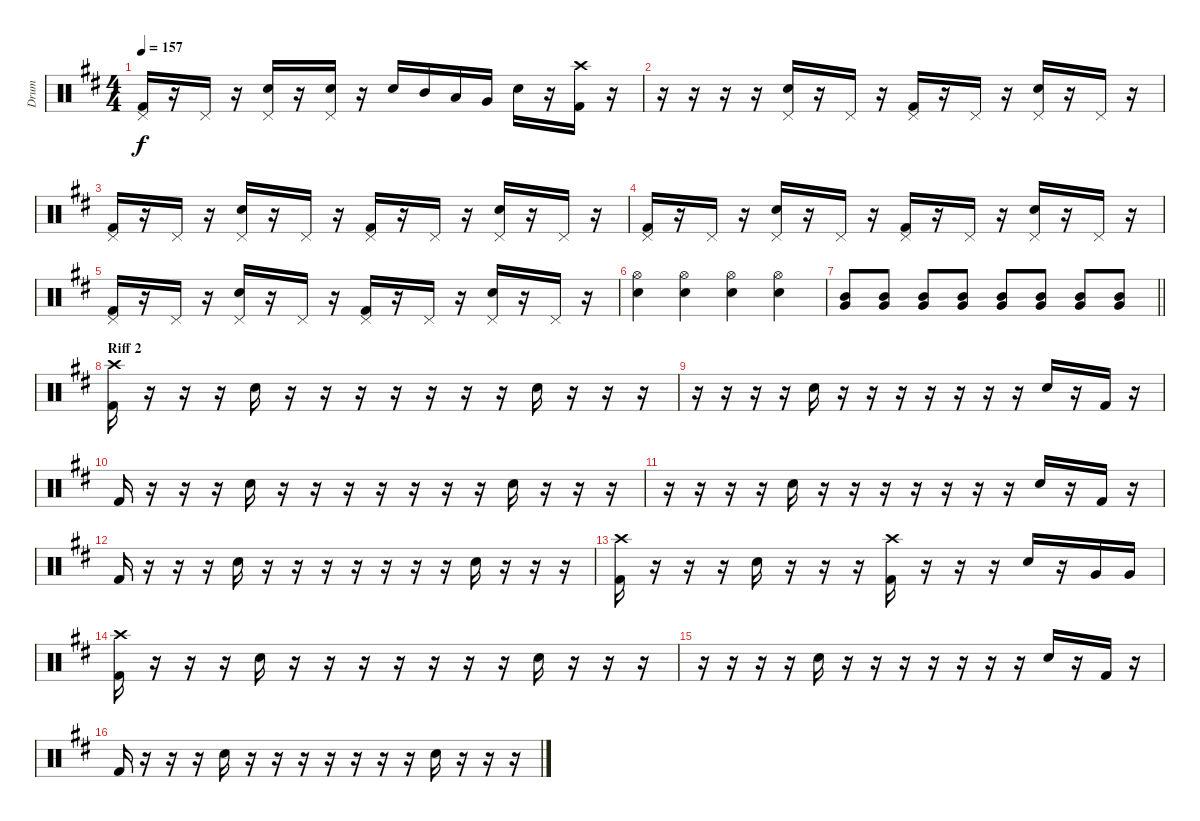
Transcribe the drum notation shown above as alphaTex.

\track ("Drum" "Drum") {instrument percussion}
\staff {score}
\articulation defaults
\ts (4 4)
\tempo 157
\clef neutral
\ks d
("Kick (hit) 2" "Pedal Hi-Hat (hit)").16{dy f} r.16 "Pedal Hi-Hat (hit)".16 r.16 ("Pedal Hi-Hat (hit)" "Electric Snare (hit)").16 r.16 ("Electric Snare (hit)" "Pedal Hi-Hat (hit)").16 r.16 "Electric Snare (hit)".16 "Mid Tom (hit)".16 "Low Tom (hit)".16 "Very Low Tom (hit)".16 "Electric Snare (hit)".16 r.16 ("Kick (hit) 2" "Crash high (hit)").16 r.16 |
r.16 r.16 r.16 r.16 ("Pedal Hi-Hat (hit)" "Electric Snare (hit)").16 r.16 "Pedal Hi-Hat (hit)".16 r.16 ("Pedal Hi-Hat (hit)" "Kick (hit) 2").16 r.16 "Pedal Hi-Hat (hit)".16 r.16 ("Pedal Hi-Hat (hit)" "Electric Snare (hit)").16 r.16 "Pedal Hi-Hat (hit)".16 r.16 |
("Kick (hit) 2" "Pedal Hi-Hat (hit)").16 r.16 "Pedal Hi-Hat (hit)".16 r.16 ("Pedal Hi-Hat (hit)" "Electric Snare (hit)").16 r.16 "Pedal Hi-Hat (hit)".16 r.16 ("Pedal Hi-Hat (hit)" "Kick (hit) 2").16 r.16 "Pedal Hi-Hat (hit)".16 r.16 ("Pedal Hi-Hat (hit)" "Electric Snare (hit)").16 r.16 "Pedal Hi-Hat (hit)".16 r.16 |
("Kick (hit) 2" "Pedal Hi-Hat (hit)").16 r.16 "Pedal Hi-Hat (hit)".16 r.16 ("Pedal Hi-Hat (hit)" "Electric Snare (hit)").16 r.16 "Pedal Hi-Hat (hit)".16 r.16 ("Pedal Hi-Hat (hit)" "Kick (hit) 2").16 r.16 "Pedal Hi-Hat (hit)".16 r.16 ("Pedal Hi-Hat (hit)" "Electric Snare (hit)").16 r.16 "Pedal Hi-Hat (hit)".16 r.16 |
("Kick (hit) 2" "Pedal Hi-Hat (hit)").16 r.16 "Pedal Hi-Hat (hit)".16 r.16 ("Pedal Hi-Hat (hit)" "Electric Snare (hit)").16 r.16 "Pedal Hi-Hat (hit)".16 r.16 ("Pedal Hi-Hat (hit)" "Kick (hit) 2").16 r.16 "Pedal Hi-Hat (hit)".16 r.16 ("Pedal Hi-Hat (hit)" "Electric Snare (hit)").16 r.16 "Pedal Hi-Hat (hit)".16 r.16 |
("Electric Snare (hit)" "Hi-Hat (open)").4 ("Electric Snare (hit)" "Hi-Hat (open)").4 ("Electric Snare (hit)" "Hi-Hat (open)").4 ("Electric Snare (hit)" "Hi-Hat (open)").4 |
\barLineRight lightlight
("Very Low Tom (hit)" "Mid Tom (hit)").8 ("Very Low Tom (hit)" "Mid Tom (hit)").8 ("Very Low Tom (hit)" "Mid Tom (hit)").8 ("Very Low Tom (hit)" "Mid Tom (hit)").8 ("Very Low Tom (hit)" "Mid Tom (hit)").8 ("Very Low Tom (hit)" "Mid Tom (hit)").8 ("Very Low Tom (hit)" "Mid Tom (hit)").8 ("Very Low Tom (hit)" "Mid Tom (hit)").8 |
\section ("" "Riff 2")
("Kick (hit) 2" "Crash high (hit)").16 r.16 r.16 r.16 "Electric Snare (hit)".16 r.16 r.16 r.16 r.16 r.16 r.16 r.16 "Electric Snare (hit)".16 r.16 r.16 r.16 |
r.16 r.16 r.16 r.16 "Electric Snare (hit)".16 r.16 r.16 r.16 r.16 r.16 r.16 r.16 "Electric Snare (hit)".16 r.16 "Kick (hit) 2".16 r.16 |
"Kick (hit) 2".16 r.16 r.16 r.16 "Electric Snare (hit)".16 r.16 r.16 r.16 r.16 r.16 r.16 r.16 "Electric Snare (hit)".16 r.16 r.16 r.16 |
r.16 r.16 r.16 r.16 "Electric Snare (hit)".16 r.16 r.16 r.16 r.16 r.16 r.16 r.16 "Electric Snare (hit)".16 r.16 "Kick (hit) 2".16 r.16 |
"Kick (hit) 2".16 r.16 r.16 r.16 "Electric Snare (hit)".16 r.16 r.16 r.16 r.16 r.16 r.16 r.16 "Electric Snare (hit)".16 r.16 r.16 r.16 |
("Kick (hit) 2" "Crash high (hit)").16 r.16 r.16 r.16 "Electric Snare (hit)".16 r.16 r.16 r.16 ("Kick (hit) 2" "Crash high (hit)").16 r.16 r.16 r.16 "Electric Snare (hit)".16 r.16 "Very Low Tom (hit)".16 "Very Low Tom (hit)".16 |
("Kick (hit) 2" "Crash high (hit)").16 r.16 r.16 r.16 "Electric Snare (hit)".16 r.16 r.16 r.16 r.16 r.16 r.16 r.16 "Electric Snare (hit)".16 r.16 r.16 r.16 |
r.16 r.16 r.16 r.16 "Electric Snare (hit)".16 r.16 r.16 r.16 r.16 r.16 r.16 r.16 "Electric Snare (hit)".16 r.16 "Kick (hit) 2".16 r.16 |
"Kick (hit) 2".16 r.16 r.16 r.16 "Electric Snare (hit)".16 r.16 r.16 r.16 r.16 r.16 r.16 r.16 "Electric Snare (hit)".16 r.16 r.16 r.16
